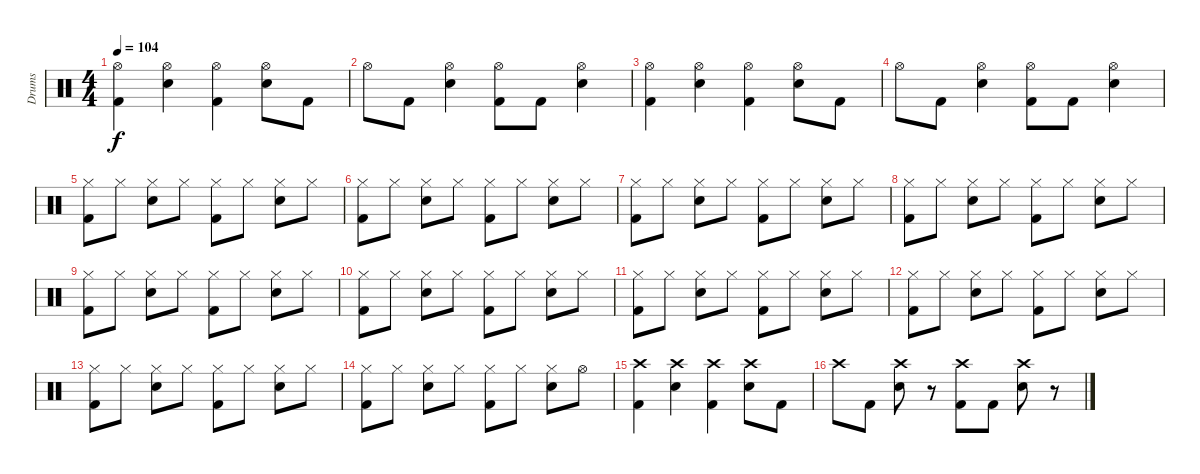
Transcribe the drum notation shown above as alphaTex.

\track ("Drums" "Drums") {instrument percussion}
\staff {score}
\articulation defaults
\ts (4 4)
\tempo 104
\clef neutral
\ks c
("Hi-Hat (open)" "Kick (hit) 2").4{dy f} ("Hi-Hat (open)" "Electric Snare (hit)").4 ("Hi-Hat (open)" "Kick (hit) 2").4 ("Hi-Hat (open)" "Electric Snare (hit)").8 "Kick (hit) 2".8 |
"Hi-Hat (open)".8 "Kick (hit) 2".8 ("Hi-Hat (open)" "Electric Snare (hit)").4 ("Hi-Hat (open)" "Kick (hit) 2").8 "Kick (hit) 2".8 ("Hi-Hat (open)" "Electric Snare (hit)").4 |
("Hi-Hat (open)" "Kick (hit) 2").4 ("Hi-Hat (open)" "Electric Snare (hit)").4 ("Hi-Hat (open)" "Kick (hit) 2").4 ("Hi-Hat (open)" "Electric Snare (hit)").8 "Kick (hit) 2".8 |
"Hi-Hat (open)".8 "Kick (hit) 2".8 ("Hi-Hat (open)" "Electric Snare (hit)").4 ("Hi-Hat (open)" "Kick (hit) 2").8 "Kick (hit) 2".8 ("Hi-Hat (open)" "Electric Snare (hit)").4 |
("Kick (hit) 2" "Hi-Hat (closed)").8 "Hi-Hat (closed)".8 ("Electric Snare (hit)" "Hi-Hat (closed)").8 "Hi-Hat (closed)".8 ("Kick (hit) 2" "Hi-Hat (closed)").8 "Hi-Hat (closed)".8 ("Electric Snare (hit)" "Hi-Hat (closed)").8 "Hi-Hat (closed)".8 |
("Kick (hit) 2" "Hi-Hat (closed)").8 "Hi-Hat (closed)".8 ("Electric Snare (hit)" "Hi-Hat (closed)").8 "Hi-Hat (closed)".8 ("Kick (hit) 2" "Hi-Hat (closed)").8 "Hi-Hat (closed)".8 ("Electric Snare (hit)" "Hi-Hat (closed)").8 "Hi-Hat (closed)".8 |
("Kick (hit) 2" "Hi-Hat (closed)").8 "Hi-Hat (closed)".8 ("Electric Snare (hit)" "Hi-Hat (closed)").8 "Hi-Hat (closed)".8 ("Kick (hit) 2" "Hi-Hat (closed)").8 "Hi-Hat (closed)".8 ("Electric Snare (hit)" "Hi-Hat (closed)").8 "Hi-Hat (closed)".8 |
("Kick (hit) 2" "Hi-Hat (closed)").8 "Hi-Hat (closed)".8 ("Electric Snare (hit)" "Hi-Hat (closed)").8 "Hi-Hat (closed)".8 ("Kick (hit) 2" "Hi-Hat (closed)").8 "Hi-Hat (closed)".8 ("Electric Snare (hit)" "Hi-Hat (closed)").8 "Hi-Hat (closed)".8 |
("Kick (hit) 2" "Hi-Hat (closed)").8 "Hi-Hat (closed)".8 ("Electric Snare (hit)" "Hi-Hat (closed)").8 "Hi-Hat (closed)".8 ("Kick (hit) 2" "Hi-Hat (closed)").8 "Hi-Hat (closed)".8 ("Electric Snare (hit)" "Hi-Hat (closed)").8 "Hi-Hat (closed)".8 |
("Kick (hit) 2" "Hi-Hat (closed)").8 "Hi-Hat (closed)".8 ("Electric Snare (hit)" "Hi-Hat (closed)").8 "Hi-Hat (closed)".8 ("Kick (hit) 2" "Hi-Hat (closed)").8 "Hi-Hat (closed)".8 ("Electric Snare (hit)" "Hi-Hat (closed)").8 "Hi-Hat (closed)".8 |
("Kick (hit) 2" "Hi-Hat (closed)").8 "Hi-Hat (closed)".8 ("Electric Snare (hit)" "Hi-Hat (closed)").8 "Hi-Hat (closed)".8 ("Kick (hit) 2" "Hi-Hat (closed)").8 "Hi-Hat (closed)".8 ("Electric Snare (hit)" "Hi-Hat (closed)").8 "Hi-Hat (closed)".8 |
("Kick (hit) 2" "Hi-Hat (closed)").8 "Hi-Hat (closed)".8 ("Electric Snare (hit)" "Hi-Hat (closed)").8 "Hi-Hat (closed)".8 ("Kick (hit) 2" "Hi-Hat (closed)").8 "Hi-Hat (closed)".8 ("Electric Snare (hit)" "Hi-Hat (closed)").8 "Hi-Hat (closed)".8 |
("Kick (hit) 2" "Hi-Hat (closed)").8 "Hi-Hat (closed)".8 ("Electric Snare (hit)" "Hi-Hat (closed)").8 "Hi-Hat (closed)".8 ("Kick (hit) 2" "Hi-Hat (closed)").8 "Hi-Hat (closed)".8 ("Electric Snare (hit)" "Hi-Hat (closed)").8 "Hi-Hat (closed)".8 |
("Kick (hit) 2" "Hi-Hat (closed)").8 "Hi-Hat (closed)".8 ("Electric Snare (hit)" "Hi-Hat (closed)").8 "Hi-Hat (closed)".8 ("Kick (hit) 2" "Hi-Hat (closed)").8 "Hi-Hat (closed)".8 ("Electric Snare (hit)" "Hi-Hat (closed)").8 "Hi-Hat (open)".8 |
("Crash high (hit)" "Kick (hit) 2").4 ("Crash high (hit)" "Electric Snare (hit)").4 ("Crash high (hit)" "Kick (hit) 2").4 ("Crash high (hit)" "Electric Snare (hit)").8 "Kick (hit) 2".8 |
"Crash high (hit)".8 "Kick (hit) 2".8 ("Crash high (hit)" "Electric Snare (hit)").8 r.8 ("Crash high (hit)" "Kick (hit) 2").8 "Kick (hit) 2".8 ("Crash high (hit)" "Electric Snare (hit)").8 r.8
